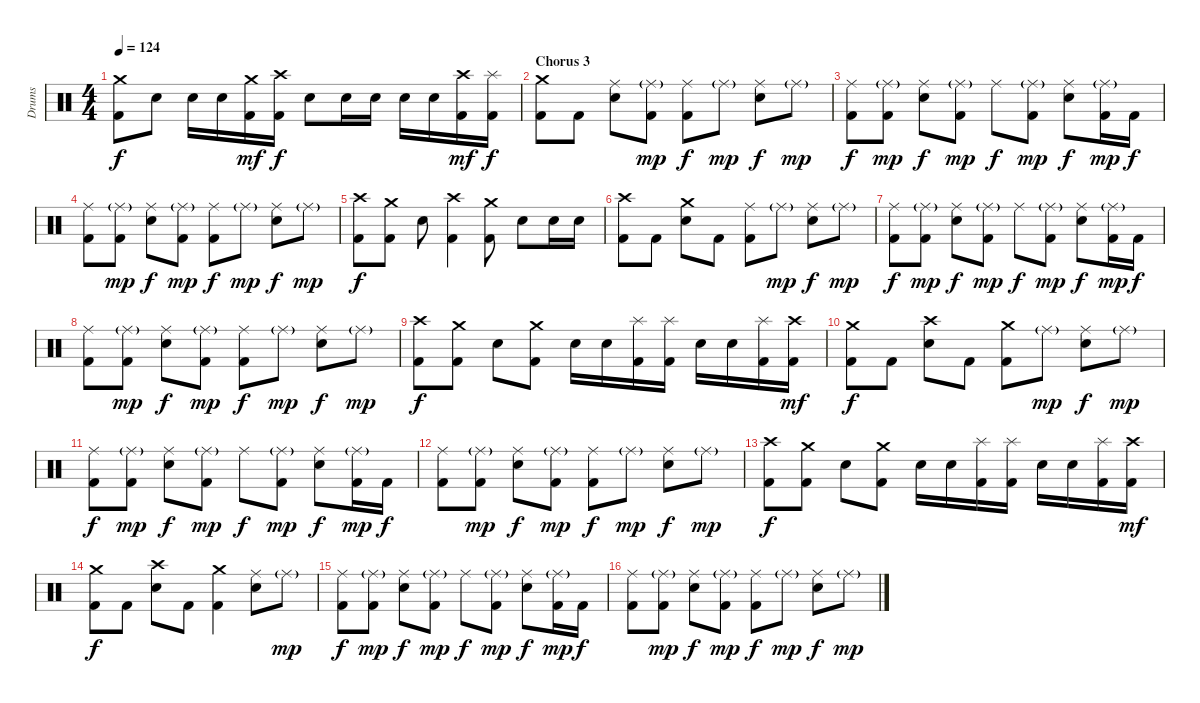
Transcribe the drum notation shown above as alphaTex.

\track ("Drums" "Drums") {instrument percussion}
\staff {score}
\articulation defaults
\ts (4 4)
\tempo 124
\clef neutral
\ks c
("Crash medium (hit)" "Kick (hit) 2").8{dy f} "Snare (hit) 2".8 "Snare (hit) 2".16 "Snare (hit) 2".16 ("Crash medium (hit)" "Kick (hit) 2").16{dy mf} ("Crash high (hit)" "Kick (hit) 2").16{dy f} "Snare (hit) 2".8 "Snare (hit) 2".16 "Snare (hit) 2".16 "Snare (hit) 2".16 "Snare (hit) 2".16 ("Crash high (hit)" "Kick (hit) 2").16{dy mf} ("Splash (hit)" "Kick (hit) 2").16{dy f} |
\section ("" "Chorus 3")
("Crash medium (hit)" "Kick (hit) 2").8 "Kick (hit) 2".8 ("Ride (middle)" "Snare (hit) 2").8 ("Ride (middle)"{g} "Kick (hit) 2").8{dy mp} ("Ride (middle)" "Kick (hit) 2").8{dy f} "Ride (middle)"{g}.8{dy mp} ("Ride (middle)" "Snare (hit) 2").8{dy f} "Ride (middle)"{g}.8{dy mp} |
("Ride (middle)" "Kick (hit) 2").8{dy f} ("Ride (middle)"{g} "Kick (hit) 2").8{dy mp} ("Ride (middle)" "Snare (hit) 2").8{dy f} ("Ride (middle)"{g} "Kick (hit) 2").8{dy mp} "Ride (middle)".8{dy f} ("Ride (middle)"{g} "Kick (hit) 2").8{dy mp} ("Ride (middle)" "Snare (hit) 2").8{dy f} ("Ride (middle)"{g} "Kick (hit) 2").16{dy mp} "Kick (hit) 2".16{dy f} |
("Ride (middle)" "Kick (hit) 2").8 ("Ride (middle)"{g} "Kick (hit) 2").8{dy mp} ("Ride (middle)" "Snare (hit) 2").8{dy f} ("Ride (middle)"{g} "Kick (hit) 2").8{dy mp} ("Ride (middle)" "Kick (hit) 2").8{dy f} "Ride (middle)"{g}.8{dy mp} ("Ride (middle)" "Snare (hit) 2").8{dy f} "Ride (middle)"{g}.8{dy mp} |
("Crash high (hit)" "Kick (hit) 2").8{dy f} ("Crash medium (hit)" "Kick (hit) 2").8 "Snare (hit) 2".8 ("Crash high (hit)" "Kick (hit) 2").4 ("Crash medium (hit)" "Kick (hit) 2").8 "Snare (hit) 2".8 "Snare (hit) 2".16 "Snare (hit) 2".16 |
("Crash high (hit)" "Kick (hit) 2").8 "Kick (hit) 2".8 ("Crash medium (hit)" "Snare (hit) 2").8 "Kick (hit) 2".8 ("Ride (middle)" "Kick (hit) 2").8 "Ride (middle)"{g}.8{dy mp} ("Ride (middle)" "Snare (hit) 2").8{dy f} "Ride (middle)"{g}.8{dy mp} |
("Ride (middle)" "Kick (hit) 2").8{dy f} ("Ride (middle)"{g} "Kick (hit) 2").8{dy mp} ("Ride (middle)" "Snare (hit) 2").8{dy f} ("Ride (middle)"{g} "Kick (hit) 2").8{dy mp} "Ride (middle)".8{dy f} ("Ride (middle)"{g} "Kick (hit) 2").8{dy mp} ("Ride (middle)" "Snare (hit) 2").8{dy f} ("Ride (middle)"{g} "Kick (hit) 2").16{dy mp} "Kick (hit) 2".16{dy f} |
("Ride (middle)" "Kick (hit) 2").8 ("Ride (middle)"{g} "Kick (hit) 2").8{dy mp} ("Ride (middle)" "Snare (hit) 2").8{dy f} ("Ride (middle)"{g} "Kick (hit) 2").8{dy mp} ("Ride (middle)" "Kick (hit) 2").8{dy f} "Ride (middle)"{g}.8{dy mp} ("Ride (middle)" "Snare (hit) 2").8{dy f} "Ride (middle)"{g}.8{dy mp} |
("Crash high (hit)" "Kick (hit) 2").8{dy f} ("Crash medium (hit)" "Kick (hit) 2").8 "Snare (hit) 2".8 ("Crash medium (hit)" "Kick (hit) 2").8 "Snare (hit) 2".16 "Snare (hit) 2".16 ("Splash (hit)" "Kick (hit) 2").16 ("Splash (hit)" "Kick (hit) 2").16 "Snare (hit) 2".16 "Snare (hit) 2".16 ("Splash (hit)" "Kick (hit) 2").16 ("Crash high (hit)" "Kick (hit) 2").16{dy mf} |
("Crash medium (hit)" "Kick (hit) 2").8{dy f} "Kick (hit) 2".8 ("Crash high (hit)" "Snare (hit) 2").8 "Kick (hit) 2".8 ("Crash medium (hit)" "Kick (hit) 2").8 "Ride (middle)"{g}.8{dy mp} ("Ride (middle)" "Snare (hit) 2").8{dy f} "Ride (middle)"{g}.8{dy mp} |
("Ride (middle)" "Kick (hit) 2").8{dy f} ("Ride (middle)"{g} "Kick (hit) 2").8{dy mp} ("Ride (middle)" "Snare (hit) 2").8{dy f} ("Ride (middle)"{g} "Kick (hit) 2").8{dy mp} "Ride (middle)".8{dy f} ("Ride (middle)"{g} "Kick (hit) 2").8{dy mp} ("Ride (middle)" "Snare (hit) 2").8{dy f} ("Ride (middle)"{g} "Kick (hit) 2").16{dy mp} "Kick (hit) 2".16{dy f} |
("Ride (middle)" "Kick (hit) 2").8 ("Ride (middle)"{g} "Kick (hit) 2").8{dy mp} ("Ride (middle)" "Snare (hit) 2").8{dy f} ("Ride (middle)"{g} "Kick (hit) 2").8{dy mp} ("Ride (middle)" "Kick (hit) 2").8{dy f} "Ride (middle)"{g}.8{dy mp} ("Ride (middle)" "Snare (hit) 2").8{dy f} "Ride (middle)"{g}.8{dy mp} |
("Crash high (hit)" "Kick (hit) 2").8{dy f} ("Crash medium (hit)" "Kick (hit) 2").8 "Snare (hit) 2".8 ("Crash medium (hit)" "Kick (hit) 2").8 "Snare (hit) 2".16 "Snare (hit) 2".16 ("Splash (hit)" "Kick (hit) 2").16 ("Splash (hit)" "Kick (hit) 2").16 "Snare (hit) 2".16 "Snare (hit) 2".16 ("Splash (hit)" "Kick (hit) 2").16 ("Crash high (hit)" "Kick (hit) 2").16{dy mf} |
("Crash medium (hit)" "Kick (hit) 2").8{dy f} "Kick (hit) 2".8 ("Crash high (hit)" "Snare (hit) 2").8 "Kick (hit) 2".8 ("Crash medium (hit)" "Kick (hit) 2").4 ("Ride (middle)" "Snare (hit) 2").8 "Ride (middle)"{g}.8{dy mp} |
("Ride (middle)" "Kick (hit) 2").8{dy f} ("Ride (middle)"{g} "Kick (hit) 2").8{dy mp} ("Ride (middle)" "Snare (hit) 2").8{dy f} ("Ride (middle)"{g} "Kick (hit) 2").8{dy mp} "Ride (middle)".8{dy f} ("Ride (middle)"{g} "Kick (hit) 2").8{dy mp} ("Ride (middle)" "Snare (hit) 2").8{dy f} ("Ride (middle)"{g} "Kick (hit) 2").16{dy mp} "Kick (hit) 2".16{dy f} |
("Ride (middle)" "Kick (hit) 2").8 ("Ride (middle)"{g} "Kick (hit) 2").8{dy mp} ("Ride (middle)" "Snare (hit) 2").8{dy f} ("Ride (middle)"{g} "Kick (hit) 2").8{dy mp} ("Ride (middle)" "Kick (hit) 2").8{dy f} "Ride (middle)"{g}.8{dy mp} ("Ride (middle)" "Snare (hit) 2").8{dy f} "Ride (middle)"{g}.8{dy mp}
